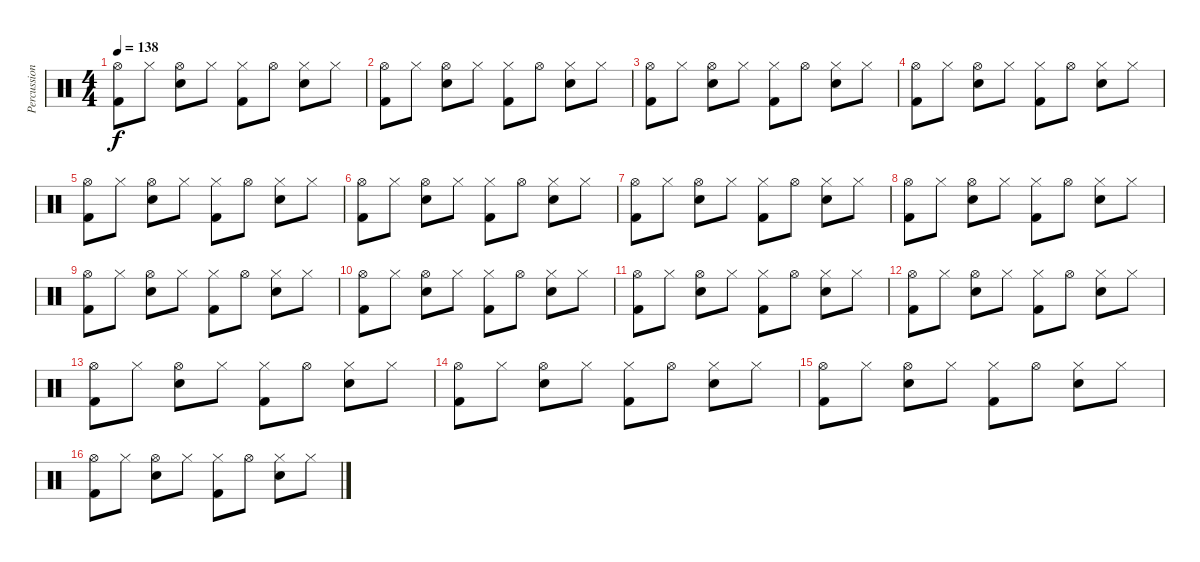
\track ("Percussions" "Percussion") {instrument percussion}
\staff {score}
\articulation defaults
\ts (4 4)
\tempo 138
\clef neutral
\ks c
("Hi-Hat (open)" "Kick (hit) 2").8{dy f} "Hi-Hat (closed)".8 ("Hi-Hat (open)" "Snare (hit) 2").8 "Hi-Hat (closed)".8 ("Hi-Hat (closed)" "Kick (hit) 2").8 "Hi-Hat (open)".8 ("Hi-Hat (closed)" "Snare (hit) 2").8 "Hi-Hat (closed)".8 |
("Hi-Hat (open)" "Kick (hit) 2").8 "Hi-Hat (closed)".8 ("Hi-Hat (open)" "Snare (hit) 2").8 "Hi-Hat (closed)".8 ("Hi-Hat (closed)" "Kick (hit) 2").8 "Hi-Hat (open)".8 ("Hi-Hat (closed)" "Snare (hit) 2").8 "Hi-Hat (closed)".8 |
("Hi-Hat (open)" "Kick (hit) 2").8 "Hi-Hat (closed)".8 ("Hi-Hat (open)" "Snare (hit) 2").8 "Hi-Hat (closed)".8 ("Hi-Hat (closed)" "Kick (hit) 2").8 "Hi-Hat (open)".8 ("Hi-Hat (closed)" "Snare (hit) 2").8 "Hi-Hat (closed)".8 |
("Hi-Hat (open)" "Kick (hit) 2").8 "Hi-Hat (closed)".8 ("Hi-Hat (open)" "Snare (hit) 2").8 "Hi-Hat (closed)".8 ("Hi-Hat (closed)" "Kick (hit) 2").8 "Hi-Hat (open)".8 ("Hi-Hat (closed)" "Snare (hit) 2").8 "Hi-Hat (closed)".8 |
("Hi-Hat (open)" "Kick (hit) 2").8 "Hi-Hat (closed)".8 ("Hi-Hat (open)" "Snare (hit) 2").8 "Hi-Hat (closed)".8 ("Hi-Hat (closed)" "Kick (hit) 2").8 "Hi-Hat (open)".8 ("Hi-Hat (closed)" "Snare (hit) 2").8 "Hi-Hat (closed)".8 |
("Hi-Hat (open)" "Kick (hit) 2").8 "Hi-Hat (closed)".8 ("Hi-Hat (open)" "Snare (hit) 2").8 "Hi-Hat (closed)".8 ("Hi-Hat (closed)" "Kick (hit) 2").8 "Hi-Hat (open)".8 ("Hi-Hat (closed)" "Snare (hit) 2").8 "Hi-Hat (closed)".8 |
("Hi-Hat (open)" "Kick (hit) 2").8 "Hi-Hat (closed)".8 ("Hi-Hat (open)" "Snare (hit) 2").8 "Hi-Hat (closed)".8 ("Hi-Hat (closed)" "Kick (hit) 2").8 "Hi-Hat (open)".8 ("Hi-Hat (closed)" "Snare (hit) 2").8 "Hi-Hat (closed)".8 |
("Hi-Hat (open)" "Kick (hit) 2").8 "Hi-Hat (closed)".8 ("Hi-Hat (open)" "Snare (hit) 2").8 "Hi-Hat (closed)".8 ("Hi-Hat (closed)" "Kick (hit) 2").8 "Hi-Hat (open)".8 ("Hi-Hat (closed)" "Snare (hit) 2").8 "Hi-Hat (closed)".8 |
("Hi-Hat (open)" "Kick (hit) 2").8 "Hi-Hat (closed)".8 ("Hi-Hat (open)" "Snare (hit) 2").8 "Hi-Hat (closed)".8 ("Hi-Hat (closed)" "Kick (hit) 2").8 "Hi-Hat (open)".8 ("Hi-Hat (closed)" "Snare (hit) 2").8 "Hi-Hat (closed)".8 |
("Hi-Hat (open)" "Kick (hit) 2").8 "Hi-Hat (closed)".8 ("Hi-Hat (open)" "Snare (hit) 2").8 "Hi-Hat (closed)".8 ("Hi-Hat (closed)" "Kick (hit) 2").8 "Hi-Hat (open)".8 ("Hi-Hat (closed)" "Snare (hit) 2").8 "Hi-Hat (closed)".8 |
("Hi-Hat (open)" "Kick (hit) 2").8 "Hi-Hat (closed)".8 ("Hi-Hat (open)" "Snare (hit) 2").8 "Hi-Hat (closed)".8 ("Hi-Hat (closed)" "Kick (hit) 2").8 "Hi-Hat (open)".8 ("Hi-Hat (closed)" "Snare (hit) 2").8 "Hi-Hat (closed)".8 |
("Hi-Hat (open)" "Kick (hit) 2").8 "Hi-Hat (closed)".8 ("Hi-Hat (open)" "Snare (hit) 2").8 "Hi-Hat (closed)".8 ("Hi-Hat (closed)" "Kick (hit) 2").8 "Hi-Hat (open)".8 ("Hi-Hat (closed)" "Snare (hit) 2").8 "Hi-Hat (closed)".8 |
("Hi-Hat (open)" "Kick (hit) 2").8 "Hi-Hat (closed)".8 ("Hi-Hat (open)" "Snare (hit) 2").8 "Hi-Hat (closed)".8 ("Hi-Hat (closed)" "Kick (hit) 2").8 "Hi-Hat (open)".8 ("Hi-Hat (closed)" "Snare (hit) 2").8 "Hi-Hat (closed)".8 |
("Hi-Hat (open)" "Kick (hit) 2").8 "Hi-Hat (closed)".8 ("Hi-Hat (open)" "Snare (hit) 2").8 "Hi-Hat (closed)".8 ("Hi-Hat (closed)" "Kick (hit) 2").8 "Hi-Hat (open)".8 ("Hi-Hat (closed)" "Snare (hit) 2").8 "Hi-Hat (closed)".8 |
("Hi-Hat (open)" "Kick (hit) 2").8 "Hi-Hat (closed)".8 ("Hi-Hat (open)" "Snare (hit) 2").8 "Hi-Hat (closed)".8 ("Hi-Hat (closed)" "Kick (hit) 2").8 "Hi-Hat (open)".8 ("Hi-Hat (closed)" "Snare (hit) 2").8 "Hi-Hat (closed)".8 |
("Hi-Hat (open)" "Kick (hit) 2").8 "Hi-Hat (closed)".8 ("Hi-Hat (open)" "Snare (hit) 2").8 "Hi-Hat (closed)".8 ("Hi-Hat (closed)" "Kick (hit) 2").8 "Hi-Hat (open)".8 ("Hi-Hat (closed)" "Snare (hit) 2").8 "Hi-Hat (closed)".8
